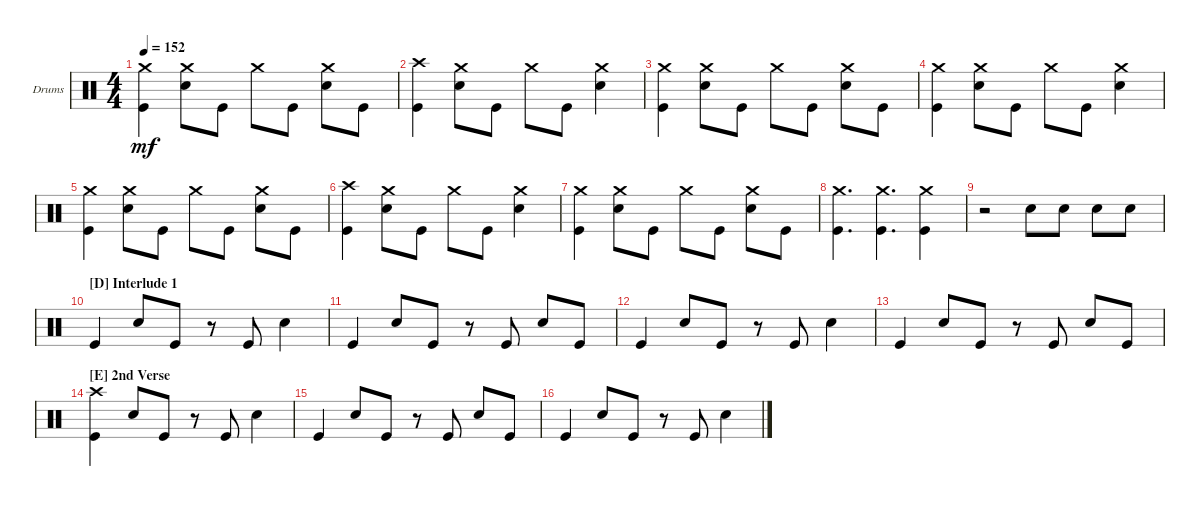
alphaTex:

\defaultSystemsLayout 4
\bracketExtendMode groupsimilarinstruments
\firstSystemTrackNameOrientation horizontal
\otherSystemsTrackNameOrientation horizontal
\track ("Drums" "Drums") {instrument percussion}
\staff {score}
\articulation defaults
\ts (4 4)
\tempo 152
\clef neutral
\ks c
("Kick (hit)" "Crash medium (hit)").4{dy mf} ("Snare (hit) 2" "Crash medium (hit)").8 "Kick (hit)".8 "Crash medium (hit)".8 "Kick (hit)".8 ("Snare (hit) 2" "Crash medium (hit)").8 "Kick (hit)".8 |
("Kick (hit)" "Crash high (hit)").4 ("Snare (hit) 2" "Crash medium (hit)").8 "Kick (hit)".8 "Crash medium (hit)".8 "Kick (hit)".8 ("Snare (hit) 2" "Crash medium (hit)").4 |
("Kick (hit)" "Crash medium (hit)").4 ("Snare (hit) 2" "Crash medium (hit)").8 "Kick (hit)".8 "Crash medium (hit)".8 "Kick (hit)".8 ("Snare (hit) 2" "Crash medium (hit)").8 "Kick (hit)".8 |
("Kick (hit)" "Crash medium (hit)").4 ("Snare (hit) 2" "Crash medium (hit)").8 "Kick (hit)".8 "Crash medium (hit)".8 "Kick (hit)".8 ("Snare (hit) 2" "Crash medium (hit)").4 |
("Kick (hit)" "Crash medium (hit)").4 ("Snare (hit) 2" "Crash medium (hit)").8 "Kick (hit)".8 "Crash medium (hit)".8 "Kick (hit)".8 ("Snare (hit) 2" "Crash medium (hit)").8 "Kick (hit)".8 |
("Kick (hit)" "Crash high (hit)").4 ("Snare (hit) 2" "Crash medium (hit)").8 "Kick (hit)".8 "Crash medium (hit)".8 "Kick (hit)".8 ("Snare (hit) 2" "Crash medium (hit)").4 |
("Kick (hit)" "Crash medium (hit)").4 ("Snare (hit) 2" "Crash medium (hit)").8 "Kick (hit)".8 "Crash medium (hit)".8 "Kick (hit)".8 ("Snare (hit) 2" "Crash medium (hit)").8 "Kick (hit)".8 |
("Kick (hit)" "Crash medium (hit)").4{d} ("Kick (hit)" "Crash medium (hit)").4{d} ("Crash medium (hit)" "Kick (hit)").4 |
r.2 "Snare (hit) 2".8 "Snare (hit) 2".8 "Snare (hit) 2".8 "Snare (hit) 2".8 |
\section ("D" "Interlude 1")
"Kick (hit)".4 "Snare (hit) 2".8 "Kick (hit)".8 r.8 "Kick (hit)".8 "Snare (hit) 2".4 |
"Kick (hit)".4 "Snare (hit) 2".8 "Kick (hit)".8 r.8 "Kick (hit)".8 "Snare (hit) 2".8 "Kick (hit)".8 |
"Kick (hit)".4 "Snare (hit) 2".8 "Kick (hit)".8 r.8 "Kick (hit)".8 "Snare (hit) 2".4 |
"Kick (hit)".4 "Snare (hit) 2".8 "Kick (hit)".8 r.8 "Kick (hit)".8 "Snare (hit) 2".8 "Kick (hit)".8 |
\section ("E" "2nd Verse")
("Kick (hit)" "Crash high (hit)").4 "Snare (hit) 2".8 "Kick (hit)".8 r.8 "Kick (hit)".8 "Snare (hit) 2".4 |
"Kick (hit)".4 "Snare (hit) 2".8 "Kick (hit)".8 r.8 "Kick (hit)".8 "Snare (hit) 2".8 "Kick (hit)".8 |
"Kick (hit)".4 "Snare (hit) 2".8 "Kick (hit)".8 r.8 "Kick (hit)".8 "Snare (hit) 2".4
